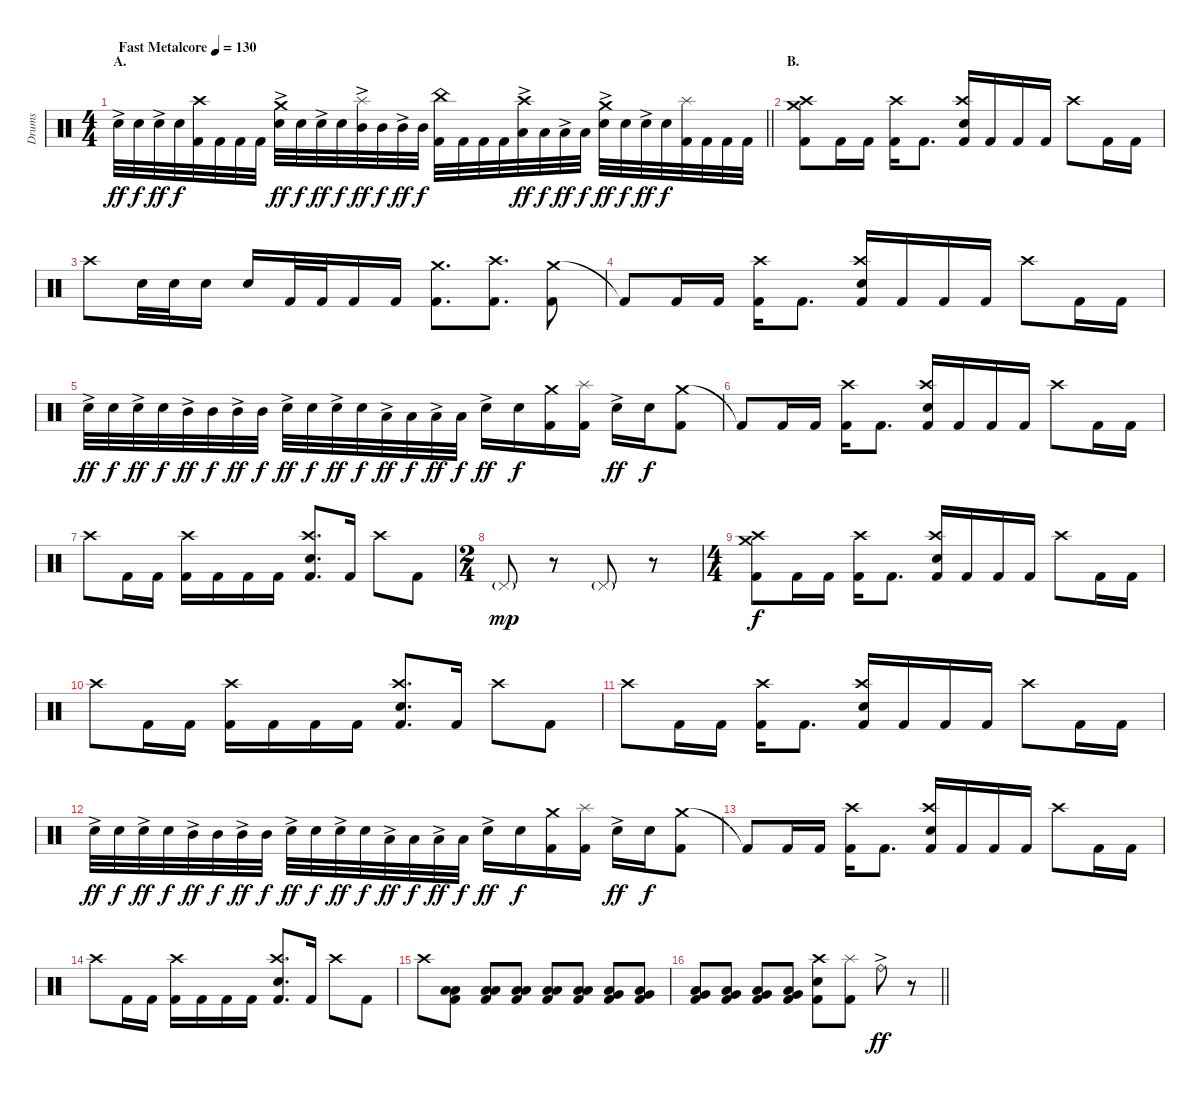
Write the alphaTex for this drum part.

\track ("Drums" "Drums") {instrument percussion}
\staff {score}
\articulation defaults
\ts (4 4)
\section ("" "A.")
\tempo (130 "Fast Metalcore")
\clef neutral
\barLineRight lightlight
\ks c "Electric Snare (hit)"{ac}.32{dy ff} "Electric Snare (hit)".32{dy f} "Electric Snare (hit)"{ac}.32{dy ff} "Electric Snare (hit)".32{dy f}
("Crash high (hit)" "Kick (hit) 2").32 "Kick (hit) 2".32 "Kick (hit) 2".32 "Kick (hit) 2".32 ("Crash medium (hit)" "Electric Snare (hit)"{ac}).32{dy ff} "Electric Snare (hit)".32{dy f} "Electric Snare (hit)"{ac}.32{dy ff} "Electric Snare (hit)".32{dy f} ("Splash (hit)" "Mid Tom (hit)"{ac}).32{dy ff} "Mid Tom (hit)".32{dy f} "Mid Tom (hit)"{ac}.32{dy ff} "Mid Tom (hit)".32{dy f} ("China (hit)" "Kick (hit) 2").32 "Kick (hit) 2".32 "Kick (hit) 2".32 "Kick (hit) 2".32 ("Crash high (hit)" "Low Tom (hit)"{ac}).32{dy ff} "Low Tom (hit)".32{dy f} "Low Tom (hit)"{ac}.32{dy ff} "Low Tom (hit)".32{dy f} ("Crash medium (hit)" "Electric Snare (hit)"{ac}).32{dy ff} "Electric Snare (hit)".32{dy f} "Electric Snare (hit)"{ac}.32{dy ff} "Electric Snare (hit)".32{dy f} ("Splash (hit)" "Kick (hit) 2").32 "Kick (hit) 2".32 "Kick (hit) 2".32 "Kick (hit) 2".32 |
\section ("" "B.")
("Crash medium (hit)" "Crash high (hit)" "Kick (hit) 2").8 "Kick (hit) 2".16 "Kick (hit) 2".16 ("Crash high (hit)" "Kick (hit) 2").16 "Kick (hit) 2".8{d} ("Crash high (hit)" "Electric Snare (hit)" "Kick (hit) 2").16 "Kick (hit) 2".16 "Kick (hit) 2".16 "Kick (hit) 2".16 "Crash high (hit)".8 "Kick (hit) 2".16 "Kick (hit) 2".16 |
"Crash high (hit)".8 "Electric Snare (hit)".32 "Electric Snare (hit)".32 "Electric Snare (hit)".16 "Electric Snare (hit)".16 "Kick (hit) 2".32 "Kick (hit) 2".32 "Kick (hit) 2".16 "Kick (hit) 2".16 ("Crash medium (hit)" "Kick (hit) 2").8{d} ("Crash high (hit)" "Kick (hit) 2").8{d} ("Crash medium (hit)" "Kick (hit) 2").8 |
"Kick (hit) 2"{t}.8 "Kick (hit) 2".16 "Kick (hit) 2".16 ("Crash high (hit)" "Kick (hit) 2").16 "Kick (hit) 2".8{d} ("Crash high (hit)" "Electric Snare (hit)" "Kick (hit) 2").16 "Kick (hit) 2".16 "Kick (hit) 2".16 "Kick (hit) 2".16 "Crash high (hit)".8 "Kick (hit) 2".16 "Kick (hit) 2".16 |
"Electric Snare (hit)"{ac}.32{dy ff} "Electric Snare (hit)".32{dy f} "Electric Snare (hit)"{ac}.32{dy ff} "Electric Snare (hit)".32{dy f} "Mid Tom (hit)"{ac}.32{dy ff} "Mid Tom (hit)".32{dy f} "Mid Tom (hit)"{ac}.32{dy ff} "Mid Tom (hit)".32{dy f} "Electric Snare (hit)"{ac}.32{dy ff} "Electric Snare (hit)".32{dy f} "Electric Snare (hit)"{ac}.32{dy ff} "Electric Snare (hit)".32{dy f} "Low Tom (hit)"{ac}.32{dy ff} "Low Tom (hit)".32{dy f} "Low Tom (hit)"{ac}.32{dy ff} "Low Tom (hit)".32{dy f} "Electric Snare (hit)"{ac}.16{dy ff} "Electric Snare (hit)".16{dy f} ("Crash medium (hit)" "Kick (hit) 2").16 ("Splash (hit)" "Kick (hit) 2").16 "Electric Snare (hit)"{ac}.16{dy ff} "Electric Snare (hit)".16{dy f} ("Crash medium (hit)" "Kick (hit) 2").8 |
"Kick (hit) 2"{t}.8 "Kick (hit) 2".16 "Kick (hit) 2".16 ("Crash high (hit)" "Kick (hit) 2").16 "Kick (hit) 2".8{d} ("Crash high (hit)" "Electric Snare (hit)" "Kick (hit) 2").16 "Kick (hit) 2".16 "Kick (hit) 2".16 "Kick (hit) 2".16 "Crash high (hit)".8 "Kick (hit) 2".16 "Kick (hit) 2".16 |
"Crash high (hit)".8 "Kick (hit) 2".16 "Kick (hit) 2".16 ("Crash high (hit)" "Kick (hit) 2").16 "Kick (hit) 2".16 "Kick (hit) 2".16 "Kick (hit) 2".16 ("Crash high (hit)" "Electric Snare (hit)" "Kick (hit) 2").8{d} "Kick (hit) 2".16 "Crash high (hit)".8 "Kick (hit) 2".8 |
\ts (2 4)
"Pedal Hi-Hat (hit)"{g}.8{dy mp} r.8 "Pedal Hi-Hat (hit)"{g}.8 r.8 |
\ts (4 4)
("Crash medium (hit)" "Crash high (hit)" "Kick (hit) 2").8{dy f} "Kick (hit) 2".16 "Kick (hit) 2".16 ("Crash high (hit)" "Kick (hit) 2").16 "Kick (hit) 2".8{d} ("Crash high (hit)" "Electric Snare (hit)" "Kick (hit) 2").16 "Kick (hit) 2".16 "Kick (hit) 2".16 "Kick (hit) 2".16 "Crash high (hit)".8 "Kick (hit) 2".16 "Kick (hit) 2".16 |
"Crash high (hit)".8 "Kick (hit) 2".16 "Kick (hit) 2".16 ("Crash high (hit)" "Kick (hit) 2").16 "Kick (hit) 2".16 "Kick (hit) 2".16 "Kick (hit) 2".16 ("Crash high (hit)" "Electric Snare (hit)" "Kick (hit) 2").8{d} "Kick (hit) 2".16 "Crash high (hit)".8 "Kick (hit) 2".8 |
"Crash high (hit)".8 "Kick (hit) 2".16 "Kick (hit) 2".16 ("Crash high (hit)" "Kick (hit) 2").16 "Kick (hit) 2".8{d} ("Crash high (hit)" "Electric Snare (hit)" "Kick (hit) 2").16 "Kick (hit) 2".16 "Kick (hit) 2".16 "Kick (hit) 2".16 "Crash high (hit)".8 "Kick (hit) 2".16 "Kick (hit) 2".16 |
"Electric Snare (hit)"{ac}.32{dy ff} "Electric Snare (hit)".32{dy f} "Electric Snare (hit)"{ac}.32{dy ff} "Electric Snare (hit)".32{dy f} "Mid Tom (hit)"{ac}.32{dy ff} "Mid Tom (hit)".32{dy f} "Mid Tom (hit)"{ac}.32{dy ff} "Mid Tom (hit)".32{dy f} "Electric Snare (hit)"{ac}.32{dy ff} "Electric Snare (hit)".32{dy f} "Electric Snare (hit)"{ac}.32{dy ff} "Electric Snare (hit)".32{dy f} "Low Tom (hit)"{ac}.32{dy ff} "Low Tom (hit)".32{dy f} "Low Tom (hit)"{ac}.32{dy ff} "Low Tom (hit)".32{dy f} "Electric Snare (hit)"{ac}.16{dy ff} "Electric Snare (hit)".16{dy f} ("Crash medium (hit)" "Kick (hit) 2").16 ("Splash (hit)" "Kick (hit) 2").16 "Electric Snare (hit)"{ac}.16{dy ff} "Electric Snare (hit)".16{dy f} ("Crash medium (hit)" "Kick (hit) 2").8 |
"Kick (hit) 2"{t}.8 "Kick (hit) 2".16 "Kick (hit) 2".16 ("Crash high (hit)" "Kick (hit) 2").16 "Kick (hit) 2".8{d} ("Crash high (hit)" "Electric Snare (hit)" "Kick (hit) 2").16 "Kick (hit) 2".16 "Kick (hit) 2".16 "Kick (hit) 2".16 "Crash high (hit)".8 "Kick (hit) 2".16 "Kick (hit) 2".16 |
"Crash high (hit)".8 "Kick (hit) 2".16 "Kick (hit) 2".16 ("Crash high (hit)" "Kick (hit) 2").16 "Kick (hit) 2".16 "Kick (hit) 2".16 "Kick (hit) 2".16 ("Crash high (hit)" "Electric Snare (hit)" "Kick (hit) 2").8{d} "Kick (hit) 2".16 "Crash high (hit)".8 "Kick (hit) 2".8 |
"Crash high (hit)".8 ("Low Tom (hit)" "Low Floor Tom (hit)" "Kick (hit) 2").8{volume 4} ("Low Tom (hit)" "Low Floor Tom (hit)" "Kick (hit) 2").8{volume 14} ("Low Tom (hit)" "Low Floor Tom (hit)" "Kick (hit) 2").8 ("Low Tom (hit)" "Low Floor Tom (hit)" "Kick (hit) 2").8 ("Low Tom (hit)" "Low Floor Tom (hit)" "Kick (hit) 2").8 ("Very Low Tom (hit)" "Low Floor Tom (hit)" "Kick (hit) 2").8 ("Very Low Tom (hit)" "Low Floor Tom (hit)" "Kick (hit) 2").8 |
\barLineRight lightlight
("Very Low Tom (hit)" "Low Floor Tom (hit)" "Kick (hit) 2").8 ("Very Low Tom (hit)" "Low Floor Tom (hit)" "Kick (hit) 2").8 ("Very Low Tom (hit)" "Low Floor Tom (hit)" "Kick (hit) 2").8 ("Very Low Tom (hit)" "Low Floor Tom (hit)" "Kick (hit) 2").8 ("Crash high (hit)" "Electric Snare (hit)" "Kick (hit) 2").8 ("Splash (hit)" "Kick (hit) 2").8 "Ride (bell)"{ac}.8{dy ff} r.8
